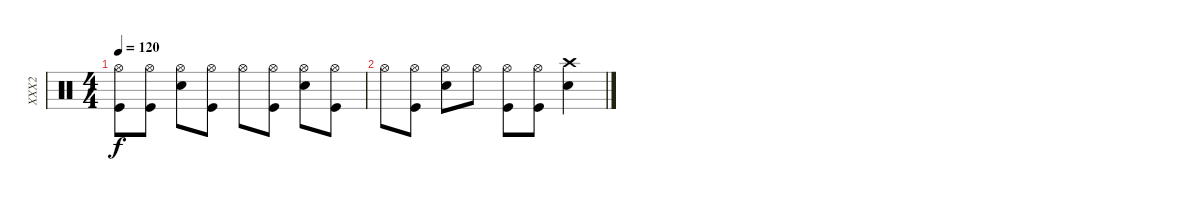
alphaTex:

\track ("XXX2" "XXX2") {solo instrument percussion}
\staff {score}
\articulation defaults
\ts (4 4)
\tempo 120
\clef neutral
\ks c
("Hi-Hat (open)" "Kick (hit)").8{dy f} ("Hi-Hat (open)" "Kick (hit)").8 ("Hi-Hat (open)" "Electric Snare (hit)").8 ("Hi-Hat (open)" "Kick (hit)").8 "Hi-Hat (open)".8 ("Hi-Hat (open)" "Kick (hit)").8 ("Hi-Hat (open)" "Electric Snare (hit)").8 ("Hi-Hat (open)" "Kick (hit)").8 |
"Hi-Hat (open)".8 ("Hi-Hat (open)" "Kick (hit)").8 ("Hi-Hat (open)" "Electric Snare (hit)").8 "Hi-Hat (open)".8 ("Hi-Hat (open)" "Kick (hit)").8 ("Hi-Hat (open)" "Kick (hit)").8 ("Crash high (hit)" "Electric Snare (hit)").4
